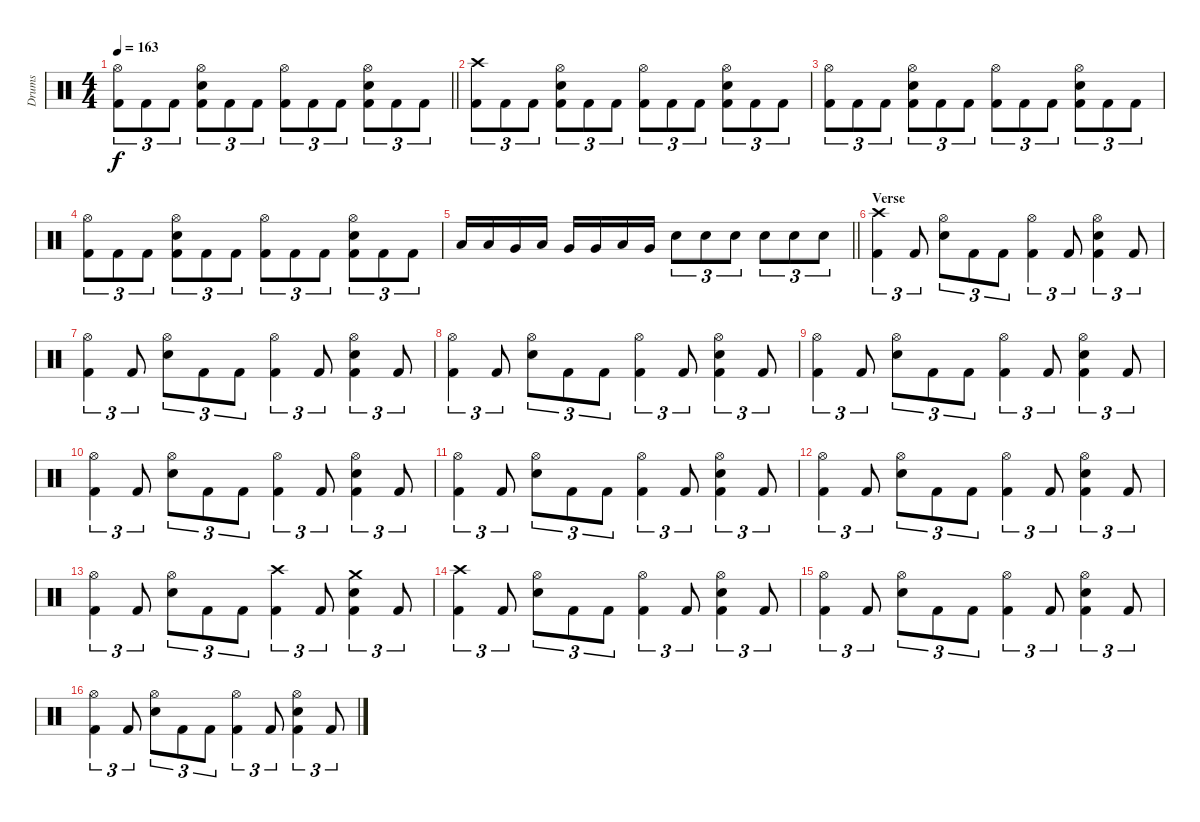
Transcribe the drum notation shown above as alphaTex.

\track ("Drums" "Drums") {instrument percussion}
\staff {score}
\articulation defaults
\ts (4 4)
\tempo 163
\clef neutral
\barLineRight lightlight
\ks c
("Hi-Hat (open)" "Kick (hit) 2").8{tu (3 2) dy f} "Kick (hit) 2".8{tu (3 2)} "Kick (hit) 2".8{tu (3 2)} ("Hi-Hat (open)" "Electric Snare (hit)" "Kick (hit) 2").8{tu (3 2)} "Kick (hit) 2".8{tu (3 2)} "Kick (hit) 2".8{tu (3 2)} ("Hi-Hat (open)" "Kick (hit) 2").8{tu (3 2)} "Kick (hit) 2".8{tu (3 2)} "Kick (hit) 2".8{tu (3 2)} ("Hi-Hat (open)" "Electric Snare (hit)" "Kick (hit) 2").8{tu (3 2)} "Kick (hit) 2".8{tu (3 2)} "Kick (hit) 2".8{tu (3 2)} |
("Crash high (hit)" "Kick (hit) 2").8{tu (3 2)} "Kick (hit) 2".8{tu (3 2)} "Kick (hit) 2".8{tu (3 2)} ("Hi-Hat (open)" "Electric Snare (hit)" "Kick (hit) 2").8{tu (3 2)} "Kick (hit) 2".8{tu (3 2)} "Kick (hit) 2".8{tu (3 2)} ("Hi-Hat (open)" "Kick (hit) 2").8{tu (3 2)} "Kick (hit) 2".8{tu (3 2)} "Kick (hit) 2".8{tu (3 2)} ("Hi-Hat (open)" "Electric Snare (hit)" "Kick (hit) 2").8{tu (3 2)} "Kick (hit) 2".8{tu (3 2)} "Kick (hit) 2".8{tu (3 2)} |
("Hi-Hat (open)" "Kick (hit) 2").8{tu (3 2)} "Kick (hit) 2".8{tu (3 2)} "Kick (hit) 2".8{tu (3 2)} ("Hi-Hat (open)" "Electric Snare (hit)" "Kick (hit) 2").8{tu (3 2)} "Kick (hit) 2".8{tu (3 2)} "Kick (hit) 2".8{tu (3 2)} ("Hi-Hat (open)" "Kick (hit) 2").8{tu (3 2)} "Kick (hit) 2".8{tu (3 2)} "Kick (hit) 2".8{tu (3 2)} ("Hi-Hat (open)" "Electric Snare (hit)" "Kick (hit) 2").8{tu (3 2)} "Kick (hit) 2".8{tu (3 2)} "Kick (hit) 2".8{tu (3 2)} |
("Hi-Hat (open)" "Kick (hit) 2").8{tu (3 2)} "Kick (hit) 2".8{tu (3 2)} "Kick (hit) 2".8{tu (3 2)} ("Hi-Hat (open)" "Electric Snare (hit)" "Kick (hit) 2").8{tu (3 2)} "Kick (hit) 2".8{tu (3 2)} "Kick (hit) 2".8{tu (3 2)} ("Hi-Hat (open)" "Kick (hit) 2").8{tu (3 2)} "Kick (hit) 2".8{tu (3 2)} "Kick (hit) 2".8{tu (3 2)} ("Hi-Hat (open)" "Electric Snare (hit)" "Kick (hit) 2").8{tu (3 2)} "Kick (hit) 2".8{tu (3 2)} "Kick (hit) 2".8{tu (3 2)} |
\barLineRight lightlight "Low Tom (hit)".16 "Low Tom (hit)".16 "Very Low Tom (hit)".16 "Low Floor Tom (hit)".16 "Very Low Tom (hit)".16 "Very Low Tom (hit)".16 "Low Floor Tom (hit)".16 "Very Low Tom (hit)".16 "Electric Snare (hit)".8{tu (3 2)} "Electric Snare (hit)".8{tu (3 2)} "Electric Snare (hit)".8{tu (3 2)} "Electric Snare (hit)".8{tu (3 2)} "Electric Snare (hit)".8{tu (3 2)} "Electric Snare (hit)".8{tu (3 2)}
|
\section ("" "Verse")
("Crash high (hit)" "Kick (hit) 2").4{tu (3 2)} "Kick (hit) 2".8{tu (3 2)} ("Hi-Hat (open)" "Electric Snare (hit)").8{tu (3 2)} "Kick (hit) 2".8{tu (3 2)} "Kick (hit) 2".8{tu (3 2)} ("Hi-Hat (open)" "Kick (hit) 2").4{tu (3 2)} "Kick (hit) 2".8{tu (3 2)} ("Hi-Hat (open)" "Electric Snare (hit)" "Kick (hit) 2").4{tu (3 2)} "Kick (hit) 2".8{tu (3 2)} |
("Hi-Hat (open)" "Kick (hit) 2").4{tu (3 2)} "Kick (hit) 2".8{tu (3 2)} ("Hi-Hat (open)" "Electric Snare (hit)").8{tu (3 2)} "Kick (hit) 2".8{tu (3 2)} "Kick (hit) 2".8{tu (3 2)} ("Hi-Hat (open)" "Kick (hit) 2").4{tu (3 2)} "Kick (hit) 2".8{tu (3 2)} ("Hi-Hat (open)" "Electric Snare (hit)" "Kick (hit) 2").4{tu (3 2)} "Kick (hit) 2".8{tu (3 2)} |
("Hi-Hat (open)" "Kick (hit) 2").4{tu (3 2)} "Kick (hit) 2".8{tu (3 2)} ("Hi-Hat (open)" "Electric Snare (hit)").8{tu (3 2)} "Kick (hit) 2".8{tu (3 2)} "Kick (hit) 2".8{tu (3 2)} ("Hi-Hat (open)" "Kick (hit) 2").4{tu (3 2)} "Kick (hit) 2".8{tu (3 2)} ("Hi-Hat (open)" "Electric Snare (hit)" "Kick (hit) 2").4{tu (3 2)} "Kick (hit) 2".8{tu (3 2)} |
("Hi-Hat (open)" "Kick (hit) 2").4{tu (3 2)} "Kick (hit) 2".8{tu (3 2)} ("Hi-Hat (open)" "Electric Snare (hit)").8{tu (3 2)} "Kick (hit) 2".8{tu (3 2)} "Kick (hit) 2".8{tu (3 2)} ("Hi-Hat (open)" "Kick (hit) 2").4{tu (3 2)} "Kick (hit) 2".8{tu (3 2)} ("Hi-Hat (open)" "Electric Snare (hit)" "Kick (hit) 2").4{tu (3 2)} "Kick (hit) 2".8{tu (3 2)} |
("Hi-Hat (open)" "Kick (hit) 2").4{tu (3 2)} "Kick (hit) 2".8{tu (3 2)} ("Hi-Hat (open)" "Electric Snare (hit)").8{tu (3 2)} "Kick (hit) 2".8{tu (3 2)} "Kick (hit) 2".8{tu (3 2)} ("Hi-Hat (open)" "Kick (hit) 2").4{tu (3 2)} "Kick (hit) 2".8{tu (3 2)} ("Hi-Hat (open)" "Electric Snare (hit)" "Kick (hit) 2").4{tu (3 2)} "Kick (hit) 2".8{tu (3 2)} |
("Hi-Hat (open)" "Kick (hit) 2").4{tu (3 2)} "Kick (hit) 2".8{tu (3 2)} ("Hi-Hat (open)" "Electric Snare (hit)").8{tu (3 2)} "Kick (hit) 2".8{tu (3 2)} "Kick (hit) 2".8{tu (3 2)} ("Hi-Hat (open)" "Kick (hit) 2").4{tu (3 2)} "Kick (hit) 2".8{tu (3 2)} ("Hi-Hat (open)" "Electric Snare (hit)" "Kick (hit) 2").4{tu (3 2)} "Kick (hit) 2".8{tu (3 2)} |
("Hi-Hat (open)" "Kick (hit) 2").4{tu (3 2)} "Kick (hit) 2".8{tu (3 2)} ("Hi-Hat (open)" "Electric Snare (hit)").8{tu (3 2)} "Kick (hit) 2".8{tu (3 2)} "Kick (hit) 2".8{tu (3 2)} ("Hi-Hat (open)" "Kick (hit) 2").4{tu (3 2)} "Kick (hit) 2".8{tu (3 2)} ("Hi-Hat (open)" "Electric Snare (hit)" "Kick (hit) 2").4{tu (3 2)} "Kick (hit) 2".8{tu (3 2)} |
("Hi-Hat (open)" "Kick (hit) 2").4{tu (3 2)} "Kick (hit) 2".8{tu (3 2)} ("Hi-Hat (open)" "Electric Snare (hit)").8{tu (3 2)} "Kick (hit) 2".8{tu (3 2)} "Kick (hit) 2".8{tu (3 2)} ("Crash high (hit)" "Kick (hit) 2").4{tu (3 2)} "Kick (hit) 2".8{tu (3 2)} ("Crash medium (hit)" "Electric Snare (hit)" "Kick (hit) 2").4{tu (3 2)} "Kick (hit) 2".8{tu (3 2)} |
("Crash high (hit)" "Kick (hit) 2").4{tu (3 2)} "Kick (hit) 2".8{tu (3 2)} ("Hi-Hat (open)" "Electric Snare (hit)").8{tu (3 2)} "Kick (hit) 2".8{tu (3 2)} "Kick (hit) 2".8{tu (3 2)} ("Hi-Hat (open)" "Kick (hit) 2").4{tu (3 2)} "Kick (hit) 2".8{tu (3 2)} ("Hi-Hat (open)" "Electric Snare (hit)" "Kick (hit) 2").4{tu (3 2)} "Kick (hit) 2".8{tu (3 2)} |
("Hi-Hat (open)" "Kick (hit) 2").4{tu (3 2)} "Kick (hit) 2".8{tu (3 2)} ("Hi-Hat (open)" "Electric Snare (hit)").8{tu (3 2)} "Kick (hit) 2".8{tu (3 2)} "Kick (hit) 2".8{tu (3 2)} ("Hi-Hat (open)" "Kick (hit) 2").4{tu (3 2)} "Kick (hit) 2".8{tu (3 2)} ("Hi-Hat (open)" "Electric Snare (hit)" "Kick (hit) 2").4{tu (3 2)} "Kick (hit) 2".8{tu (3 2)} |
("Hi-Hat (open)" "Kick (hit) 2").4{tu (3 2)} "Kick (hit) 2".8{tu (3 2)} ("Hi-Hat (open)" "Electric Snare (hit)").8{tu (3 2)} "Kick (hit) 2".8{tu (3 2)} "Kick (hit) 2".8{tu (3 2)} ("Hi-Hat (open)" "Kick (hit) 2").4{tu (3 2)} "Kick (hit) 2".8{tu (3 2)} ("Hi-Hat (open)" "Electric Snare (hit)" "Kick (hit) 2").4{tu (3 2)} "Kick (hit) 2".8{tu (3 2)}
